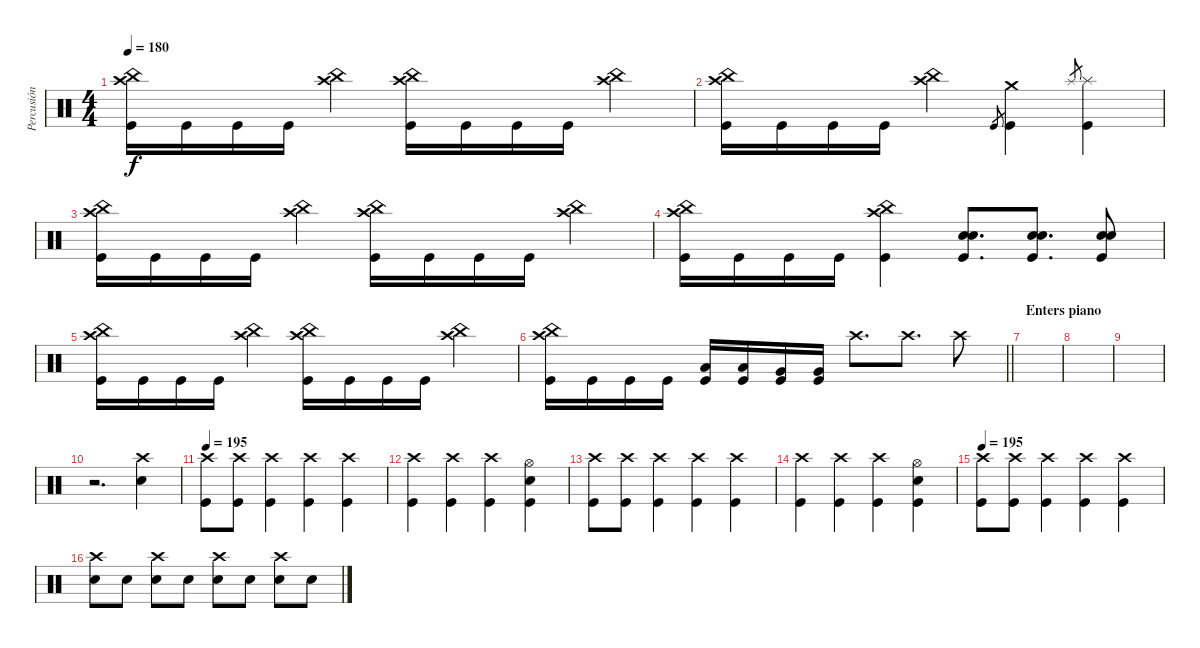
\track ("Percusión" "Percusión") {instrument percussion}
\staff {score}
\articulation defaults
\ts (4 4)
\tempo 180
\clef neutral
\ks c
("Crash high (hit)" "Kick (hit)" "China (hit)").16{dy f} "Kick (hit)".16 "Kick (hit)".16 "Kick (hit)".16 ("Crash high (hit)" "China (hit)").4 ("Crash high (hit)" "Kick (hit)" "China (hit)").16 "Kick (hit)".16 "Kick (hit)".16 "Kick (hit)".16 ("Crash high (hit)" "China (hit)").4 |
("Crash high (hit)" "Kick (hit)" "China (hit)").16 "Kick (hit)".16 "Kick (hit)".16 "Kick (hit)".16 ("Crash high (hit)" "China (hit)").4 "Kick (hit)".8{gr} ("Crash medium (hit)" "Kick (hit)").4 "Splash (hit)".8{gr} ("Kick (hit)" "Splash (hit)").4 |
("Crash high (hit)" "Kick (hit)" "China (hit)").16 "Kick (hit)".16 "Kick (hit)".16 "Kick (hit)".16 ("Crash high (hit)" "China (hit)").4 ("Crash high (hit)" "Kick (hit)" "China (hit)").16 "Kick (hit)".16 "Kick (hit)".16 "Kick (hit)".16 ("Crash high (hit)" "China (hit)").4 |
("Crash high (hit)" "Kick (hit)" "China (hit)").16 "Kick (hit)".16 "Kick (hit)".16 "Kick (hit)".16 ("China (hit)" "Crash high (hit)" "Kick (hit)").4 ("Kick (hit)" "Electric Snare (hit)" "Electric Snare (hit)").8{d} ("Kick (hit)" "Electric Snare (hit)" "Electric Snare (hit)").8{d} ("Kick (hit)" "Electric Snare (hit)" "Electric Snare (hit)").8 |
("Crash high (hit)" "Kick (hit)" "China (hit)").16 "Kick (hit)".16 "Kick (hit)".16 "Kick (hit)".16 ("Crash high (hit)" "China (hit)").4 ("Crash high (hit)" "Kick (hit)" "China (hit)").16 "Kick (hit)".16 "Kick (hit)".16 "Kick (hit)".16 ("Crash high (hit)" "China (hit)").4 |
\barLineRight lightlight
("Crash high (hit)" "Kick (hit)" "China (hit)").16 "Kick (hit)".16 "Kick (hit)".16 "Kick (hit)".16 ("Low Tom (hit)" "Kick (hit)").16 ("Low Tom (hit)" "Kick (hit)").16 ("Very Low Tom (hit)" "Kick (hit)").16 ("Very Low Tom (hit)" "Kick (hit)").16 "Crash high (hit)".8{d} "Crash high (hit)".8{d} "Crash high (hit)".8 |
\section ("" "Enters piano")
|
|
|
r.2{d} ("Crash high (hit)" "Electric Snare (hit)").4 |
\tempo 195
("Crash high (hit)" "Kick (hit)").8 ("Crash high (hit)" "Kick (hit)").8 ("Crash high (hit)" "Kick (hit)").4 ("Crash high (hit)" "Kick (hit)").4 ("Crash high (hit)" "Kick (hit)").4 |
("Crash high (hit)" "Kick (hit)").4 ("Crash high (hit)" "Kick (hit)").4 ("Crash high (hit)" "Kick (hit)").4 ("Electric Snare (hit)" "Kick (hit)" "Hi-Hat (open)").4 |
("Crash high (hit)" "Kick (hit)").8 ("Crash high (hit)" "Kick (hit)").8 ("Crash high (hit)" "Kick (hit)").4 ("Crash high (hit)" "Kick (hit)").4 ("Crash high (hit)" "Kick (hit)").4 |
("Crash high (hit)" "Kick (hit)").4 ("Crash high (hit)" "Kick (hit)").4 ("Crash high (hit)" "Kick (hit)").4 ("Electric Snare (hit)" "Kick (hit)" "Hi-Hat (open)").4 |
\tempo 195
("Crash high (hit)" "Kick (hit)").8 ("Crash high (hit)" "Kick (hit)").8 ("Crash high (hit)" "Kick (hit)").4 ("Crash high (hit)" "Kick (hit)").4 ("Crash high (hit)" "Kick (hit)").4 |
("Crash high (hit)" "Electric Snare (hit)").8 "Electric Snare (hit)".8 ("Crash high (hit)" "Electric Snare (hit)").8 "Electric Snare (hit)".8 ("Crash high (hit)" "Electric Snare (hit)").8 "Electric Snare (hit)".8 ("Crash high (hit)" "Electric Snare (hit)").8 "Electric Snare (hit)".8
